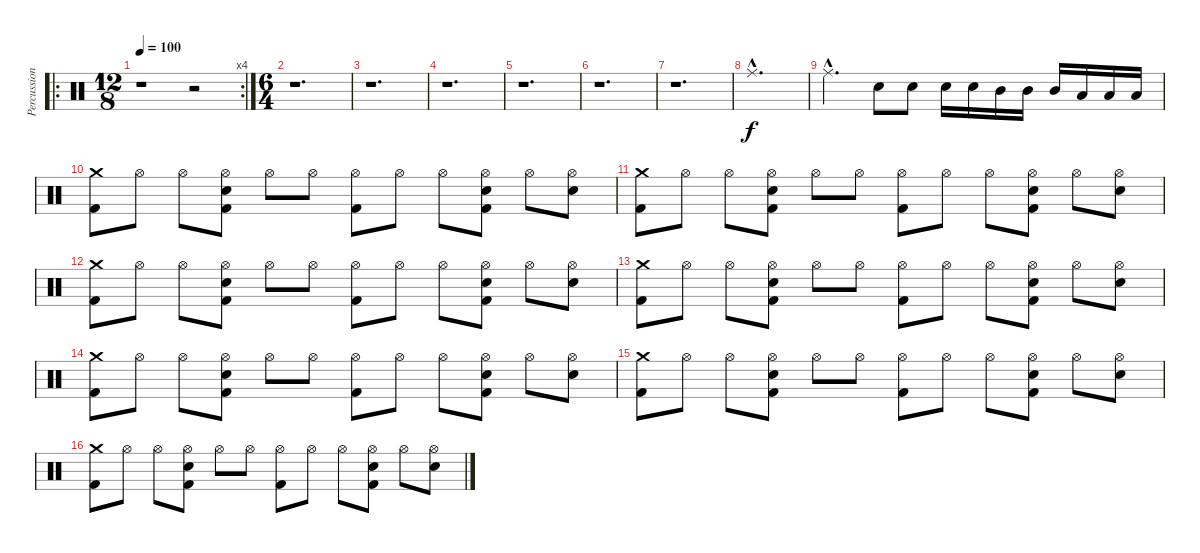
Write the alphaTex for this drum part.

\track ("Percussion" "Percussion") {instrument percussion}
\staff {score}
\articulation defaults
\ro
\rc 4
\ts (12 8)
\tempo 100
\clef neutral
\ks c
r.1{dy f} r.2 |
\ts (6 4)
r.1{d} |
r.1{d} |
r.1{d} |
r.1{d} |
r.1{d} |
r.1{d} |
"Ride (middle)"{hac}.1{d} |
"Ride (middle)"{hac}.2{d} "Electric Snare (hit)".8 "Electric Snare (hit)".8 "Electric Snare (hit)".16 "Electric Snare (hit)".16 "Mid Tom (hit)".16 "Mid Tom (hit)".16 "Mid Tom (hit)".16 "Low Tom (hit)".16 "Low Tom (hit)".16 "Low Tom (hit)".16 |
("Crash medium (hit)" "Kick (hit) 2").8 "Hi-Hat (open)".8 "Hi-Hat (open)".8 ("Hi-Hat (open)" "Electric Snare (hit)" "Kick (hit) 2").8 "Hi-Hat (open)".8 "Hi-Hat (open)".8 ("Hi-Hat (open)" "Kick (hit) 2").8 "Hi-Hat (open)".8 "Hi-Hat (open)".8 ("Hi-Hat (open)" "Electric Snare (hit)" "Kick (hit) 2").8 "Hi-Hat (open)".8 ("Hi-Hat (open)" "Electric Snare (hit)").8 |
("Crash medium (hit)" "Kick (hit) 2").8 "Hi-Hat (open)".8 "Hi-Hat (open)".8 ("Hi-Hat (open)" "Electric Snare (hit)" "Kick (hit) 2").8 "Hi-Hat (open)".8 "Hi-Hat (open)".8 ("Hi-Hat (open)" "Kick (hit) 2").8 "Hi-Hat (open)".8 "Hi-Hat (open)".8 ("Hi-Hat (open)" "Electric Snare (hit)" "Kick (hit) 2").8 "Hi-Hat (open)".8 ("Hi-Hat (open)" "Electric Snare (hit)").8 |
("Crash medium (hit)" "Kick (hit) 2").8 "Hi-Hat (open)".8 "Hi-Hat (open)".8 ("Hi-Hat (open)" "Electric Snare (hit)" "Kick (hit) 2").8 "Hi-Hat (open)".8 "Hi-Hat (open)".8 ("Hi-Hat (open)" "Kick (hit) 2").8 "Hi-Hat (open)".8 "Hi-Hat (open)".8 ("Hi-Hat (open)" "Electric Snare (hit)" "Kick (hit) 2").8 "Hi-Hat (open)".8 ("Hi-Hat (open)" "Electric Snare (hit)").8 |
("Crash medium (hit)" "Kick (hit) 2").8 "Hi-Hat (open)".8 "Hi-Hat (open)".8 ("Hi-Hat (open)" "Electric Snare (hit)" "Kick (hit) 2").8 "Hi-Hat (open)".8 "Hi-Hat (open)".8 ("Hi-Hat (open)" "Kick (hit) 2").8 "Hi-Hat (open)".8 "Hi-Hat (open)".8 ("Hi-Hat (open)" "Electric Snare (hit)" "Kick (hit) 2").8 "Hi-Hat (open)".8 ("Hi-Hat (open)" "Electric Snare (hit)").8 |
("Crash medium (hit)" "Kick (hit) 2").8 "Hi-Hat (open)".8 "Hi-Hat (open)".8 ("Hi-Hat (open)" "Electric Snare (hit)" "Kick (hit) 2").8 "Hi-Hat (open)".8 "Hi-Hat (open)".8 ("Hi-Hat (open)" "Kick (hit) 2").8 "Hi-Hat (open)".8 "Hi-Hat (open)".8 ("Hi-Hat (open)" "Electric Snare (hit)" "Kick (hit) 2").8 "Hi-Hat (open)".8 ("Hi-Hat (open)" "Electric Snare (hit)").8 |
("Crash medium (hit)" "Kick (hit) 2").8 "Hi-Hat (open)".8 "Hi-Hat (open)".8 ("Hi-Hat (open)" "Electric Snare (hit)" "Kick (hit) 2").8 "Hi-Hat (open)".8 "Hi-Hat (open)".8 ("Hi-Hat (open)" "Kick (hit) 2").8 "Hi-Hat (open)".8 "Hi-Hat (open)".8 ("Hi-Hat (open)" "Electric Snare (hit)" "Kick (hit) 2").8 "Hi-Hat (open)".8 ("Hi-Hat (open)" "Electric Snare (hit)").8 |
("Crash medium (hit)" "Kick (hit) 2").8 "Hi-Hat (open)".8 "Hi-Hat (open)".8 ("Hi-Hat (open)" "Electric Snare (hit)" "Kick (hit) 2").8 "Hi-Hat (open)".8 "Hi-Hat (open)".8 ("Hi-Hat (open)" "Kick (hit) 2").8 "Hi-Hat (open)".8 "Hi-Hat (open)".8 ("Hi-Hat (open)" "Electric Snare (hit)" "Kick (hit) 2").8 "Hi-Hat (open)".8 ("Hi-Hat (open)" "Electric Snare (hit)").8
